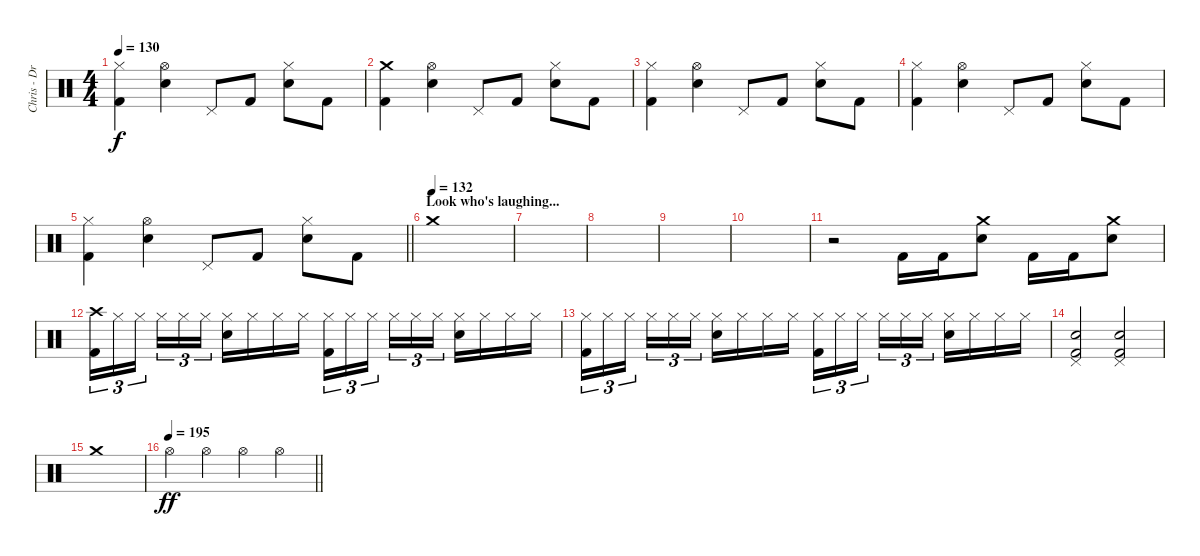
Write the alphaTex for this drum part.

\track ("Chris - Drums" "Chris - Dr") {instrument percussion}
\staff {score}
\articulation defaults
\ts (4 4)
\tempo 130
\clef neutral
\ks c
("Hi-Hat (closed)" "Kick (hit) 2").4{dy f} ("Hi-Hat (open)" "Electric Snare (hit)").4 "Pedal Hi-Hat (hit)".8 "Kick (hit) 2".8 ("Hi-Hat (closed)" "Electric Snare (hit)").8 "Kick (hit) 2".8 |
("Crash medium (hit)" "Kick (hit) 2").4 ("Hi-Hat (open)" "Electric Snare (hit)").4 "Pedal Hi-Hat (hit)".8 "Kick (hit) 2".8 ("Hi-Hat (closed)" "Electric Snare (hit)").8 "Kick (hit) 2".8 |
("Hi-Hat (closed)" "Kick (hit) 2").4 ("Hi-Hat (open)" "Electric Snare (hit)").4 "Pedal Hi-Hat (hit)".8 "Kick (hit) 2".8 ("Hi-Hat (closed)" "Electric Snare (hit)").8 "Kick (hit) 2".8 |
("Hi-Hat (closed)" "Kick (hit) 2").4 ("Hi-Hat (open)" "Electric Snare (hit)").4 "Pedal Hi-Hat (hit)".8 "Kick (hit) 2".8 ("Hi-Hat (closed)" "Electric Snare (hit)").8 "Kick (hit) 2".8 |
\barLineRight lightlight
("Hi-Hat (closed)" "Kick (hit) 2").4 ("Hi-Hat (open)" "Electric Snare (hit)").4 "Pedal Hi-Hat (hit)".8 "Kick (hit) 2".8 ("Hi-Hat (closed)" "Electric Snare (hit)").8 "Kick (hit) 2".8 |
\section ("" "Look who's laughing...")
\tempo (132)
"Crash medium (hit)".1 |
|
|
|
|
r.2 "Kick (hit) 2".16 "Kick (hit) 2".16 ("Crash medium (hit)" "Electric Snare (hit)").8 "Kick (hit) 2".16 "Kick (hit) 2".16 ("Crash medium (hit)" "Electric Snare (hit)").8 |
("Crash high (hit)" "Kick (hit) 2").16{tu (3 2)} "Hi-Hat (closed)".16{tu (3 2)} "Hi-Hat (closed)".16{tu (3 2) beam splitsecondary} "Hi-Hat (closed)".16{tu (3 2)} "Hi-Hat (closed)".16{tu (3 2)} "Hi-Hat (closed)".16{tu (3 2)} ("Hi-Hat (closed)" "Electric Snare (hit)").16 "Hi-Hat (closed)".16 "Hi-Hat (closed)".16 "Hi-Hat (closed)".16 ("Hi-Hat (closed)" "Kick (hit) 2").16{tu (3 2)} "Hi-Hat (closed)".16{tu (3 2)} "Hi-Hat (closed)".16{tu (3 2) beam splitsecondary} "Hi-Hat (closed)".16{tu (3 2)} "Hi-Hat (closed)".16{tu (3 2)} "Hi-Hat (closed)".16{tu (3 2)} ("Hi-Hat (closed)" "Electric Snare (hit)").16 "Hi-Hat (closed)".16 "Hi-Hat (closed)".16 "Hi-Hat (closed)".16 |
("Hi-Hat (closed)" "Kick (hit) 2").16{tu (3 2)} "Hi-Hat (closed)".16{tu (3 2)} "Hi-Hat (closed)".16{tu (3 2) beam splitsecondary} "Hi-Hat (closed)".16{tu (3 2)} "Hi-Hat (closed)".16{tu (3 2)} "Hi-Hat (closed)".16{tu (3 2)} ("Hi-Hat (closed)" "Electric Snare (hit)").16 "Hi-Hat (closed)".16 "Hi-Hat (closed)".16 "Hi-Hat (closed)".16 ("Hi-Hat (closed)" "Kick (hit) 2").16{tu (3 2)} "Hi-Hat (closed)".16{tu (3 2)} "Hi-Hat (closed)".16{tu (3 2) beam splitsecondary} "Hi-Hat (closed)".16{tu (3 2)} "Hi-Hat (closed)".16{tu (3 2)} "Hi-Hat (closed)".16{tu (3 2)} ("Hi-Hat (closed)" "Electric Snare (hit)").16 "Hi-Hat (closed)".16 "Hi-Hat (closed)".16 "Hi-Hat (closed)".16 |
("Pedal Hi-Hat (hit)" "Electric Snare (hit)" "Kick (hit) 2").2 ("Pedal Hi-Hat (hit)" "Electric Snare (hit)" "Kick (hit) 2").2 |
"Crash medium (hit)".1 |
\tempo 195
\barLineRight lightlight "Hi-Hat (open)".4{dy ff} "Hi-Hat (open)".4 "Hi-Hat (open)".4 "Hi-Hat (open)".4
